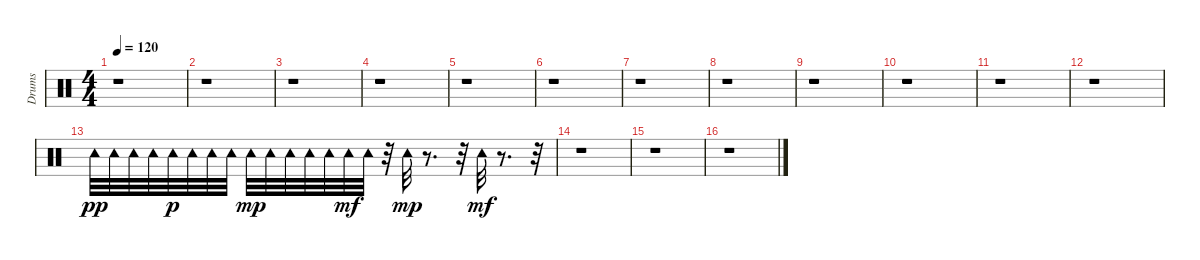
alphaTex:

\track ("Drums" "Drums") {instrument percussion}
\staff {score}
\articulation defaults
\ts (4 4)
\tempo 120
\clef neutral
\ks c
r.1{dy pp} |
r.1 |
r.1 |
r.1 |
r.1 |
r.1 |
r.1 |
r.1 |
r.1 |
r.1 |
r.1 |
r.1 |
"Tambourine (hit)".32 "Tambourine (hit)".32 "Tambourine (hit)".32 "Tambourine (hit)".32 "Tambourine (hit)".32{dy p} "Tambourine (hit)".32 "Tambourine (hit)".32 "Tambourine (hit)".32 "Tambourine (hit)".32{dy mp} "Tambourine (hit)".32 "Tambourine (hit)".32 "Tambourine (hit)".32 "Tambourine (hit)".32 "Tambourine (hit)".32{dy mf} "Tambourine (hit)".32 r.32 "Tambourine (hit)".32{dy mp} r.8{d} r.32 "Tambourine (hit)".32{dy mf} r.8{d} r.32 |
r.1 |
r.1 |
r.1
